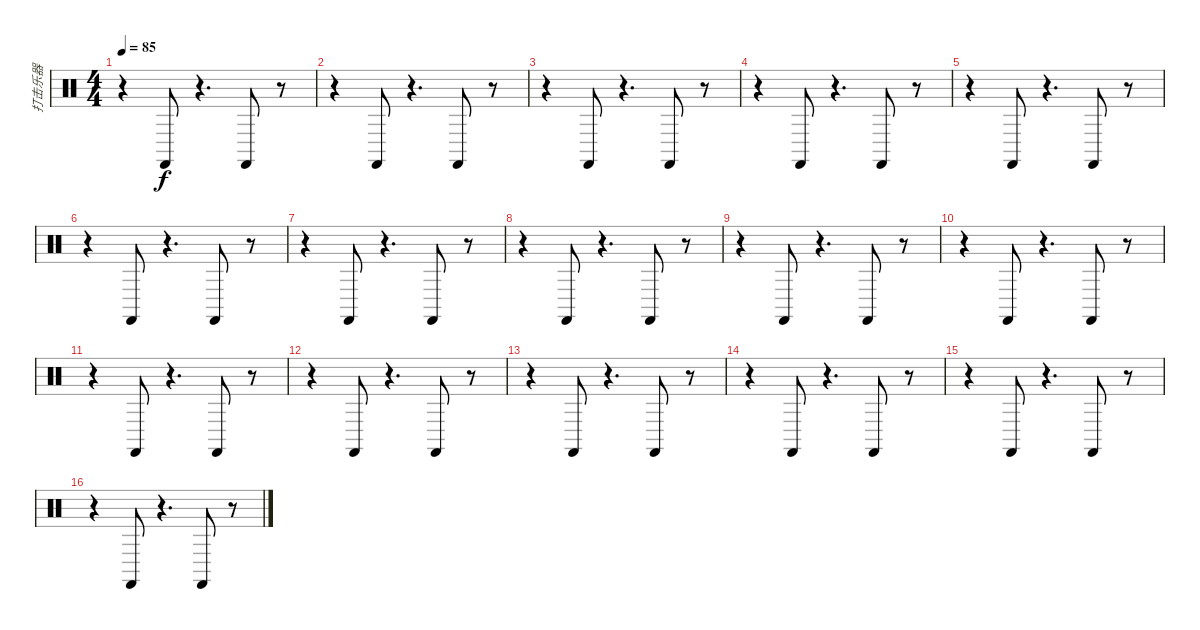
\track ("打击乐器" "打击乐器") {instrument percussion}
\staff {score}
\articulation defaults
\ts (4 4)
\tempo 85
\clef neutral
\ks c
r.4{dy f} "Castanets (hit)".8 r.4{d} "Castanets (hit)".8 r.8 |
r.4 "Castanets (hit)".8 r.4{d} "Castanets (hit)".8 r.8 |
r.4 "Castanets (hit)".8 r.4{d} "Castanets (hit)".8 r.8 |
r.4 "Castanets (hit)".8 r.4{d} "Castanets (hit)".8 r.8 |
r.4 "Castanets (hit)".8 r.4{d} "Castanets (hit)".8 r.8 |
r.4 "Castanets (hit)".8 r.4{d} "Castanets (hit)".8 r.8 |
r.4 "Castanets (hit)".8 r.4{d} "Castanets (hit)".8 r.8 |
r.4 "Castanets (hit)".8 r.4{d} "Castanets (hit)".8 r.8 |
r.4 "Castanets (hit)".8 r.4{d} "Castanets (hit)".8 r.8 |
r.4 "Castanets (hit)".8 r.4{d} "Castanets (hit)".8 r.8 |
r.4 "Castanets (hit)".8 r.4{d} "Castanets (hit)".8 r.8 |
r.4 "Castanets (hit)".8 r.4{d} "Castanets (hit)".8 r.8 |
r.4 "Castanets (hit)".8 r.4{d} "Castanets (hit)".8 r.8 |
r.4 "Castanets (hit)".8 r.4{d} "Castanets (hit)".8 r.8 |
r.4 "Castanets (hit)".8 r.4{d} "Castanets (hit)".8 r.8 |
r.4 "Castanets (hit)".8 r.4{d} "Castanets (hit)".8 r.8
